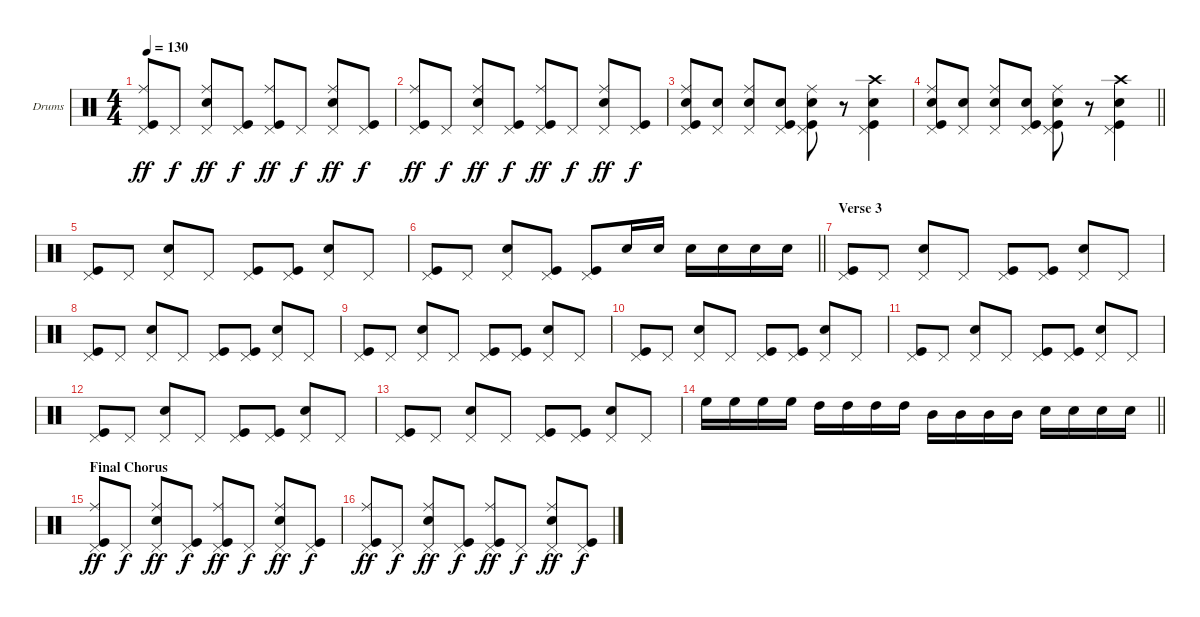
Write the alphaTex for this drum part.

\bracketExtendMode groupsimilarinstruments
\firstSystemTrackNameOrientation horizontal
\otherSystemsTrackNameOrientation horizontal
\track ("Drumkit" "Drums") {instrument percussion}
\staff {score}
\articulation defaults
\ts (4 4)
\tempo 130
\clef neutral
\ks c
("Ride (middle)" "Pedal Hi-Hat (hit)" "Kick (hit)").8{dy ff} "Pedal Hi-Hat (hit)".8{dy f} ("Ride (middle)" "Snare (hit) 2" "Pedal Hi-Hat (hit)").8{dy ff} ("Pedal Hi-Hat (hit)" "Kick (hit)").8{dy f} ("Ride (middle)" "Pedal Hi-Hat (hit)" "Kick (hit)").8{dy ff} "Pedal Hi-Hat (hit)".8{dy f} ("Ride (middle)" "Snare (hit) 2" "Pedal Hi-Hat (hit)").8{dy ff} ("Pedal Hi-Hat (hit)" "Kick (hit)").8{dy f} |
("Ride (middle)" "Pedal Hi-Hat (hit)" "Kick (hit)").8{dy ff} "Pedal Hi-Hat (hit)".8{dy f} ("Ride (middle)" "Snare (hit) 2" "Pedal Hi-Hat (hit)").8{dy ff} ("Pedal Hi-Hat (hit)" "Kick (hit)").8{dy f} ("Ride (middle)" "Pedal Hi-Hat (hit)" "Kick (hit)").8{dy ff} "Pedal Hi-Hat (hit)".8{dy f} ("Ride (middle)" "Snare (hit) 2" "Pedal Hi-Hat (hit)").8{dy ff} ("Pedal Hi-Hat (hit)" "Kick (hit)").8{dy f} |
("Ride (middle)" "Pedal Hi-Hat (hit)" "Snare (hit) 2" "Kick (hit)").8 ("Pedal Hi-Hat (hit)" "Snare (hit) 2").8 ("Ride (middle)" "Pedal Hi-Hat (hit)" "Snare (hit) 2").8 ("Pedal Hi-Hat (hit)" "Snare (hit) 2" "Kick (hit)").8 ("Ride (middle)" "Pedal Hi-Hat (hit)" "Snare (hit) 2" "Kick (hit)").8 r.8 ("Crash high (hit)" "Pedal Hi-Hat (hit)" "Snare (hit) 2" "Kick (hit)").4 |
\barLineRight lightlight
("Ride (middle)" "Pedal Hi-Hat (hit)" "Snare (hit) 2" "Kick (hit)").8 ("Pedal Hi-Hat (hit)" "Snare (hit) 2").8 ("Ride (middle)" "Pedal Hi-Hat (hit)" "Snare (hit) 2").8 ("Pedal Hi-Hat (hit)" "Snare (hit) 2" "Kick (hit)").8 ("Ride (middle)" "Pedal Hi-Hat (hit)" "Snare (hit) 2" "Kick (hit)").8 r.8 ("Crash high (hit)" "Pedal Hi-Hat (hit)" "Snare (hit) 2" "Kick (hit)").4 |
\section ("" "")
("Pedal Hi-Hat (hit)" "Kick (hit)").8 "Pedal Hi-Hat (hit)".8 ("Snare (hit) 2" "Pedal Hi-Hat (hit)").8 "Pedal Hi-Hat (hit)".8 ("Pedal Hi-Hat (hit)" "Kick (hit)").8 ("Pedal Hi-Hat (hit)" "Kick (hit)").8 ("Snare (hit) 2" "Pedal Hi-Hat (hit)").8 "Pedal Hi-Hat (hit)".8 |
\barLineRight lightlight
("Pedal Hi-Hat (hit)" "Kick (hit)").8 "Pedal Hi-Hat (hit)".8 ("Snare (hit) 2" "Pedal Hi-Hat (hit)").8 ("Pedal Hi-Hat (hit)" "Kick (hit)").8 ("Pedal Hi-Hat (hit)" "Kick (hit)").8 "Snare (hit) 2".16 "Snare (hit) 2".16 "Snare (hit) 2".16 "Snare (hit) 2".16 "Snare (hit) 2".16 "Snare (hit) 2".16 |
\section ("" "Verse 3")
("Pedal Hi-Hat (hit)" "Kick (hit)").8 "Pedal Hi-Hat (hit)".8 ("Snare (hit) 2" "Pedal Hi-Hat (hit)").8 "Pedal Hi-Hat (hit)".8 ("Pedal Hi-Hat (hit)" "Kick (hit)").8 ("Pedal Hi-Hat (hit)" "Kick (hit)").8 ("Snare (hit) 2" "Pedal Hi-Hat (hit)").8 "Pedal Hi-Hat (hit)".8 |
("Pedal Hi-Hat (hit)" "Kick (hit)").8 "Pedal Hi-Hat (hit)".8 ("Snare (hit) 2" "Pedal Hi-Hat (hit)").8 "Pedal Hi-Hat (hit)".8 ("Pedal Hi-Hat (hit)" "Kick (hit)").8 ("Pedal Hi-Hat (hit)" "Kick (hit)").8 ("Snare (hit) 2" "Pedal Hi-Hat (hit)").8 "Pedal Hi-Hat (hit)".8 |
("Pedal Hi-Hat (hit)" "Kick (hit)").8 "Pedal Hi-Hat (hit)".8 ("Snare (hit) 2" "Pedal Hi-Hat (hit)").8 "Pedal Hi-Hat (hit)".8 ("Pedal Hi-Hat (hit)" "Kick (hit)").8 ("Pedal Hi-Hat (hit)" "Kick (hit)").8 ("Snare (hit) 2" "Pedal Hi-Hat (hit)").8 "Pedal Hi-Hat (hit)".8 |
("Pedal Hi-Hat (hit)" "Kick (hit)").8 "Pedal Hi-Hat (hit)".8 ("Snare (hit) 2" "Pedal Hi-Hat (hit)").8 "Pedal Hi-Hat (hit)".8 ("Pedal Hi-Hat (hit)" "Kick (hit)").8 ("Pedal Hi-Hat (hit)" "Kick (hit)").8 ("Snare (hit) 2" "Pedal Hi-Hat (hit)").8 "Pedal Hi-Hat (hit)".8 |
("Pedal Hi-Hat (hit)" "Kick (hit)").8 "Pedal Hi-Hat (hit)".8 ("Snare (hit) 2" "Pedal Hi-Hat (hit)").8 "Pedal Hi-Hat (hit)".8 ("Pedal Hi-Hat (hit)" "Kick (hit)").8 ("Pedal Hi-Hat (hit)" "Kick (hit)").8 ("Snare (hit) 2" "Pedal Hi-Hat (hit)").8 "Pedal Hi-Hat (hit)".8 |
("Pedal Hi-Hat (hit)" "Kick (hit)").8 "Pedal Hi-Hat (hit)".8 ("Snare (hit) 2" "Pedal Hi-Hat (hit)").8 "Pedal Hi-Hat (hit)".8 ("Pedal Hi-Hat (hit)" "Kick (hit)").8 ("Pedal Hi-Hat (hit)" "Kick (hit)").8 ("Snare (hit) 2" "Pedal Hi-Hat (hit)").8 "Pedal Hi-Hat (hit)".8 |
("Pedal Hi-Hat (hit)" "Kick (hit)").8 "Pedal Hi-Hat (hit)".8 ("Snare (hit) 2" "Pedal Hi-Hat (hit)").8 "Pedal Hi-Hat (hit)".8 ("Pedal Hi-Hat (hit)" "Kick (hit)").8 ("Pedal Hi-Hat (hit)" "Kick (hit)").8 ("Snare (hit) 2" "Pedal Hi-Hat (hit)").8 "Pedal Hi-Hat (hit)".8 |
\barLineRight lightlight "High Floor Tom (hit)".16 "High Floor Tom (hit)".16 "High Floor Tom (hit)".16 "High Floor Tom (hit)".16 "High Tom (hit)".16 "High Tom (hit)".16 "High Tom (hit)".16 "High Tom (hit)".16 "Mid Tom (hit)".16 "Mid Tom (hit)".16 "Mid Tom (hit)".16 "Mid Tom (hit)".16 "Snare (hit) 2".16 "Snare (hit) 2".16 "Snare (hit) 2".16 "Snare (hit) 2".16
|
\section ("" "Final Chorus")
("Ride (middle)" "Pedal Hi-Hat (hit)" "Kick (hit)").8{dy ff} "Pedal Hi-Hat (hit)".8{dy f} ("Ride (middle)" "Snare (hit) 2" "Pedal Hi-Hat (hit)").8{dy ff} ("Pedal Hi-Hat (hit)" "Kick (hit)").8{dy f} ("Ride (middle)" "Pedal Hi-Hat (hit)" "Kick (hit)").8{dy ff} "Pedal Hi-Hat (hit)".8{dy f} ("Ride (middle)" "Snare (hit) 2" "Pedal Hi-Hat (hit)").8{dy ff} ("Pedal Hi-Hat (hit)" "Kick (hit)").8{dy f} |
("Ride (middle)" "Pedal Hi-Hat (hit)" "Kick (hit)").8{dy ff} "Pedal Hi-Hat (hit)".8{dy f} ("Ride (middle)" "Snare (hit) 2" "Pedal Hi-Hat (hit)").8{dy ff} ("Pedal Hi-Hat (hit)" "Kick (hit)").8{dy f} ("Ride (middle)" "Pedal Hi-Hat (hit)" "Kick (hit)").8{dy ff} "Pedal Hi-Hat (hit)".8{dy f} ("Ride (middle)" "Snare (hit) 2" "Pedal Hi-Hat (hit)").8{dy ff} ("Pedal Hi-Hat (hit)" "Kick (hit)").8{dy f}
